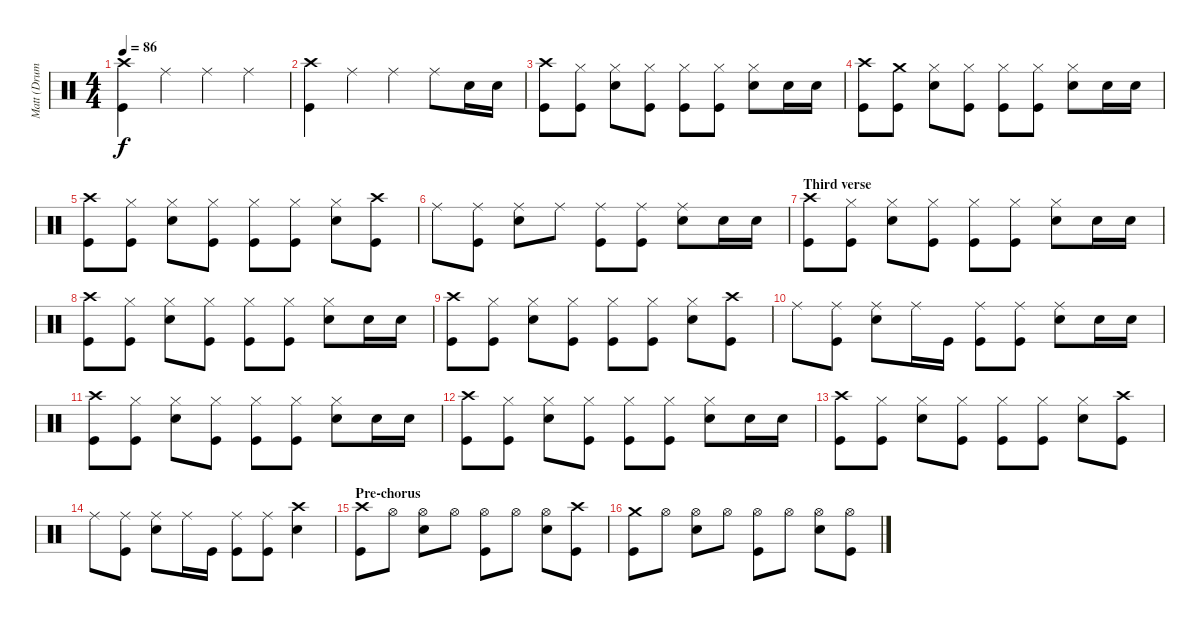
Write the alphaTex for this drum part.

\track ("Matt (Drums)" "Matt (Drum") {instrument percussion}
\staff {score}
\articulation defaults
\ts (4 4)
\tempo 86
\clef neutral
\ks c
("Crash high (hit)" "Kick (hit)").4{dy f} "Ride (middle)".4 "Ride (middle)".4 "Ride (middle)".4 |
("Crash high (hit)" "Kick (hit)").4 "Ride (middle)".4 "Ride (middle)".4 "Ride (middle)".8 "Electric Snare (hit)".16 "Electric Snare (hit)".16 |
("Crash high (hit)" "Kick (hit)").8 ("Hi-Hat (closed)" "Kick (hit)").8 ("Hi-Hat (closed)" "Electric Snare (hit)").8 ("Hi-Hat (closed)" "Kick (hit)").8 ("Hi-Hat (closed)" "Kick (hit)").8 ("Hi-Hat (closed)" "Kick (hit)").8 ("Hi-Hat (closed)" "Electric Snare (hit)").8 "Electric Snare (hit)".16 "Electric Snare (hit)".16 |
("Crash high (hit)" "Kick (hit)").8 ("Crash medium (hit)" "Kick (hit)").8 ("Hi-Hat (closed)" "Electric Snare (hit)").8 ("Hi-Hat (closed)" "Kick (hit)").8 ("Hi-Hat (closed)" "Kick (hit)").8 ("Hi-Hat (closed)" "Kick (hit)").8 ("Hi-Hat (closed)" "Electric Snare (hit)").8 "Electric Snare (hit)".16 "Electric Snare (hit)".16 |
("Crash high (hit)" "Kick (hit)").8 ("Hi-Hat (closed)" "Kick (hit)").8 ("Hi-Hat (closed)" "Electric Snare (hit)").8 ("Hi-Hat (closed)" "Kick (hit)").8 ("Hi-Hat (closed)" "Kick (hit)").8 ("Hi-Hat (closed)" "Kick (hit)").8 ("Hi-Hat (closed)" "Electric Snare (hit)").8 ("Crash high (hit)" "Kick (hit)").8 |
"Ride (middle)".8 ("Ride (middle)" "Kick (hit)").8 ("Ride (middle)" "Electric Snare (hit)").8 "Ride (middle)".8 ("Ride (middle)" "Kick (hit)").8 ("Ride (middle)" "Kick (hit)").8 ("Ride (middle)" "Electric Snare (hit)").8 "Electric Snare (hit)".16 "Electric Snare (hit)".16 |
\section ("" "Third verse")
("Crash high (hit)" "Kick (hit)").8 ("Hi-Hat (closed)" "Kick (hit)").8 ("Hi-Hat (closed)" "Electric Snare (hit)").8 ("Hi-Hat (closed)" "Kick (hit)").8 ("Hi-Hat (closed)" "Kick (hit)").8 ("Hi-Hat (closed)" "Kick (hit)").8 ("Hi-Hat (closed)" "Electric Snare (hit)").8 "Electric Snare (hit)".16 "Electric Snare (hit)".16 |
("Crash high (hit)" "Kick (hit)").8 ("Hi-Hat (closed)" "Kick (hit)").8 ("Hi-Hat (closed)" "Electric Snare (hit)").8 ("Hi-Hat (closed)" "Kick (hit)").8 ("Hi-Hat (closed)" "Kick (hit)").8 ("Hi-Hat (closed)" "Kick (hit)").8 ("Hi-Hat (closed)" "Electric Snare (hit)").8 "Electric Snare (hit)".16 "Electric Snare (hit)".16 |
("Crash high (hit)" "Kick (hit)").8 ("Hi-Hat (closed)" "Kick (hit)").8 ("Hi-Hat (closed)" "Electric Snare (hit)").8 ("Hi-Hat (closed)" "Kick (hit)").8 ("Hi-Hat (closed)" "Kick (hit)").8 ("Hi-Hat (closed)" "Kick (hit)").8 ("Hi-Hat (closed)" "Electric Snare (hit)").8 ("Crash high (hit)" "Kick (hit)").8 |
"Ride (middle)".8 ("Ride (middle)" "Kick (hit)").8 ("Ride (middle)" "Electric Snare (hit)").8 "Ride (middle)".16 "Kick (hit)".16 ("Ride (middle)" "Kick (hit)").8 ("Ride (middle)" "Kick (hit)").8 ("Ride (middle)" "Electric Snare (hit)").8 "Electric Snare (hit)".16 "Electric Snare (hit)".16 |
("Crash high (hit)" "Kick (hit)").8 ("Hi-Hat (closed)" "Kick (hit)").8 ("Hi-Hat (closed)" "Electric Snare (hit)").8 ("Hi-Hat (closed)" "Kick (hit)").8 ("Hi-Hat (closed)" "Kick (hit)").8 ("Hi-Hat (closed)" "Kick (hit)").8 ("Hi-Hat (closed)" "Electric Snare (hit)").8 "Electric Snare (hit)".16 "Electric Snare (hit)".16 |
("Crash high (hit)" "Kick (hit)").8 ("Hi-Hat (closed)" "Kick (hit)").8 ("Hi-Hat (closed)" "Electric Snare (hit)").8 ("Hi-Hat (closed)" "Kick (hit)").8 ("Hi-Hat (closed)" "Kick (hit)").8 ("Hi-Hat (closed)" "Kick (hit)").8 ("Hi-Hat (closed)" "Electric Snare (hit)").8 "Electric Snare (hit)".16 "Electric Snare (hit)".16 |
("Crash high (hit)" "Kick (hit)").8 ("Hi-Hat (closed)" "Kick (hit)").8 ("Hi-Hat (closed)" "Electric Snare (hit)").8 ("Hi-Hat (closed)" "Kick (hit)").8 ("Hi-Hat (closed)" "Kick (hit)").8 ("Hi-Hat (closed)" "Kick (hit)").8 ("Hi-Hat (closed)" "Electric Snare (hit)").8 ("Crash high (hit)" "Kick (hit)").8 |
"Ride (middle)".8 ("Ride (middle)" "Kick (hit)").8 ("Ride (middle)" "Electric Snare (hit)").8 "Ride (middle)".16 "Kick (hit)".16 ("Ride (middle)" "Kick (hit)").8 ("Ride (middle)" "Kick (hit)").8 ("Crash high (hit)" "Electric Snare (hit)").4 |
\section ("" "Pre-chorus")
("Crash high (hit)" "Kick (hit)").8 "Hi-Hat (open)".8 ("Hi-Hat (open)" "Electric Snare (hit)").8 "Hi-Hat (open)".8 ("Hi-Hat (open)" "Kick (hit)").8 "Hi-Hat (open)".8 ("Hi-Hat (open)" "Electric Snare (hit)").8 ("Crash high (hit)" "Kick (hit)").8 |
("Crash medium (hit)" "Kick (hit)").8 "Hi-Hat (open)".8 ("Hi-Hat (open)" "Electric Snare (hit)").8 "Hi-Hat (open)".8 ("Hi-Hat (open)" "Kick (hit)").8 "Hi-Hat (open)".8 ("Hi-Hat (open)" "Electric Snare (hit)").8 ("Hi-Hat (open)" "Kick (hit)").8
